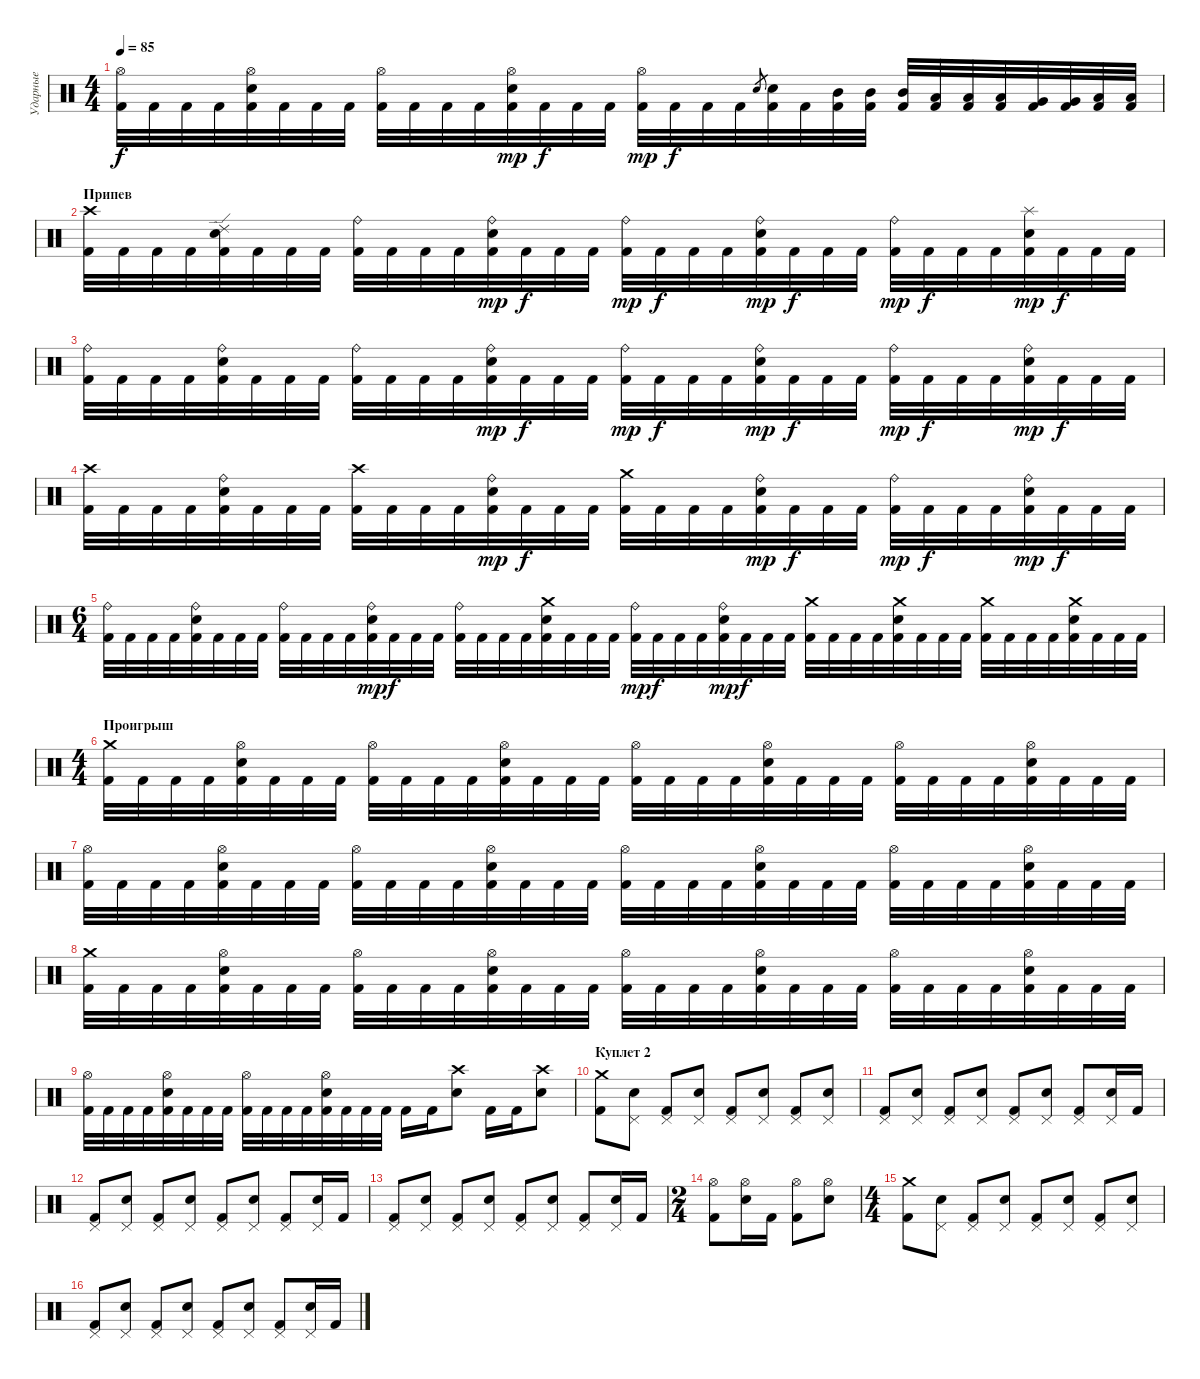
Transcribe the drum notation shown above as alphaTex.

\track ("Ударные" "Ударные") {instrument percussion}
\staff {score}
\articulation defaults
\ts (4 4)
\tempo 85
\clef neutral
\ks c
("Hi-Hat (open)" "Kick (hit) 2").32{dy f} "Kick (hit) 2".32 "Kick (hit) 2".32 "Kick (hit) 2".32 ("Hi-Hat (open)" "Snare (hit) 2" "Kick (hit) 2").32 "Kick (hit) 2".32 "Kick (hit) 2".32 "Kick (hit) 2".32 ("Hi-Hat (open)" "Kick (hit) 2").32 "Kick (hit) 2".32 "Kick (hit) 2".32 "Kick (hit) 2".32 ("Hi-Hat (open)" "Snare (hit) 2" "Kick (hit) 2").32{dy mp} "Kick (hit) 2".32{dy f} "Kick (hit) 2".32 "Kick (hit) 2".32 ("Hi-Hat (open)" "Kick (hit) 2").32{dy mp} "Kick (hit) 2".32{dy f} "Kick (hit) 2".32 "Kick (hit) 2".32 "Snare (hit) 2".8{gr} ("Snare (hit) 2" "Kick (hit) 2").32 "Kick (hit) 2".32 ("Mid Tom (hit)" "Kick (hit) 2").32 ("Mid Tom (hit)" "Kick (hit) 2").32 ("Mid Tom (hit)" "Kick (hit) 2").32 ("Low Tom (hit)" "Kick (hit) 2").32 ("Low Tom (hit)" "Kick (hit) 2").32 ("Low Tom (hit)" "Kick (hit) 2").32 ("Very Low Tom (hit)" "Kick (hit) 2").32 ("Very Low Tom (hit)" "Kick (hit) 2").32 ("Low Floor Tom (hit)" "Kick (hit) 2").32 ("Low Floor Tom (hit)" "Kick (hit) 2").32 |
\section ("" "Припев")
("Crash high (hit)" "Kick (hit) 2").32 "Kick (hit) 2".32 "Kick (hit) 2".32 "Kick (hit) 2".32 ("Ride (edge) 2" "Snare (hit) 2" "Kick (hit) 2").32 "Kick (hit) 2".32 "Kick (hit) 2".32 "Kick (hit) 2".32 ("Ride (bell)" "Kick (hit) 2").32 "Kick (hit) 2".32 "Kick (hit) 2".32 "Kick (hit) 2".32 ("Ride (bell)" "Snare (hit) 2" "Kick (hit) 2").32{dy mp} "Kick (hit) 2".32{dy f} "Kick (hit) 2".32 "Kick (hit) 2".32 ("Ride (bell)" "Kick (hit) 2").32{dy mp} "Kick (hit) 2".32{dy f} "Kick (hit) 2".32 "Kick (hit) 2".32 ("Ride (bell)" "Snare (hit) 2" "Kick (hit) 2").32{dy mp} "Kick (hit) 2".32{dy f} "Kick (hit) 2".32 "Kick (hit) 2".32 ("Ride (bell)" "Kick (hit) 2").32{dy mp} "Kick (hit) 2".32{dy f} "Kick (hit) 2".32 "Kick (hit) 2".32 ("Splash (hit)" "Snare (hit) 2" "Kick (hit) 2").32{dy mp} "Kick (hit) 2".32{dy f} "Kick (hit) 2".32 "Kick (hit) 2".32 |
("Ride (bell)" "Kick (hit) 2").32 "Kick (hit) 2".32 "Kick (hit) 2".32 "Kick (hit) 2".32 ("Ride (bell)" "Snare (hit) 2" "Kick (hit) 2").32 "Kick (hit) 2".32 "Kick (hit) 2".32 "Kick (hit) 2".32 ("Ride (bell)" "Kick (hit) 2").32 "Kick (hit) 2".32 "Kick (hit) 2".32 "Kick (hit) 2".32 ("Ride (bell)" "Snare (hit) 2" "Kick (hit) 2").32{dy mp} "Kick (hit) 2".32{dy f} "Kick (hit) 2".32 "Kick (hit) 2".32 ("Ride (bell)" "Kick (hit) 2").32{dy mp} "Kick (hit) 2".32{dy f} "Kick (hit) 2".32 "Kick (hit) 2".32 ("Ride (bell)" "Snare (hit) 2" "Kick (hit) 2").32{dy mp} "Kick (hit) 2".32{dy f} "Kick (hit) 2".32 "Kick (hit) 2".32 ("Ride (bell)" "Kick (hit) 2").32{dy mp} "Kick (hit) 2".32{dy f} "Kick (hit) 2".32 "Kick (hit) 2".32 ("Ride (bell)" "Snare (hit) 2" "Kick (hit) 2").32{dy mp} "Kick (hit) 2".32{dy f} "Kick (hit) 2".32 "Kick (hit) 2".32 |
("Crash high (hit)" "Kick (hit) 2").32 "Kick (hit) 2".32 "Kick (hit) 2".32 "Kick (hit) 2".32 ("Ride (bell)" "Snare (hit) 2" "Kick (hit) 2").32 "Kick (hit) 2".32 "Kick (hit) 2".32 "Kick (hit) 2".32 ("Crash high (hit)" "Kick (hit) 2").32 "Kick (hit) 2".32 "Kick (hit) 2".32 "Kick (hit) 2".32 ("Ride (bell)" "Snare (hit) 2" "Kick (hit) 2").32{dy mp} "Kick (hit) 2".32{dy f} "Kick (hit) 2".32 "Kick (hit) 2".32 ("Crash medium (hit)" "Kick (hit) 2").32 "Kick (hit) 2".32 "Kick (hit) 2".32 "Kick (hit) 2".32 ("Ride (bell)" "Snare (hit) 2" "Kick (hit) 2").32{dy mp} "Kick (hit) 2".32{dy f} "Kick (hit) 2".32 "Kick (hit) 2".32 ("Ride (bell)" "Kick (hit) 2").32{dy mp} "Kick (hit) 2".32{dy f} "Kick (hit) 2".32 "Kick (hit) 2".32 ("Ride (bell)" "Snare (hit) 2" "Kick (hit) 2").32{dy mp} "Kick (hit) 2".32{dy f} "Kick (hit) 2".32 "Kick (hit) 2".32 |
\ts (6 4)
("Ride (bell)" "Kick (hit) 2").32 "Kick (hit) 2".32 "Kick (hit) 2".32 "Kick (hit) 2".32 ("Ride (bell)" "Snare (hit) 2" "Kick (hit) 2").32 "Kick (hit) 2".32 "Kick (hit) 2".32 "Kick (hit) 2".32 ("Ride (bell)" "Kick (hit) 2").32 "Kick (hit) 2".32 "Kick (hit) 2".32 "Kick (hit) 2".32 ("Ride (bell)" "Snare (hit) 2" "Kick (hit) 2").32{dy mp} "Kick (hit) 2".32{dy f} "Kick (hit) 2".32 "Kick (hit) 2".32 ("Ride (bell)" "Kick (hit) 2").32 "Kick (hit) 2".32 "Kick (hit) 2".32 "Kick (hit) 2".32 ("Crash medium (hit)" "Snare (hit) 2" "Kick (hit) 2").32 "Kick (hit) 2".32 "Kick (hit) 2".32 "Kick (hit) 2".32 ("Ride (bell)" "Kick (hit) 2").32{dy mp} "Kick (hit) 2".32{dy f} "Kick (hit) 2".32 "Kick (hit) 2".32 ("Ride (bell)" "Snare (hit) 2" "Kick (hit) 2").32{dy mp} "Kick (hit) 2".32{dy f} "Kick (hit) 2".32 "Kick (hit) 2".32 ("Crash medium (hit)" "Kick (hit) 2").32 "Kick (hit) 2".32 "Kick (hit) 2".32 "Kick (hit) 2".32 ("Crash medium (hit)" "Snare (hit) 2" "Kick (hit) 2").32 "Kick (hit) 2".32 "Kick (hit) 2".32 "Kick (hit) 2".32 ("Crash medium (hit)" "Kick (hit) 2").32 "Kick (hit) 2".32 "Kick (hit) 2".32 "Kick (hit) 2".32 ("Crash medium (hit)" "Snare (hit) 2" "Kick (hit) 2").32 "Kick (hit) 2".32 "Kick (hit) 2".32 "Kick (hit) 2".32 |
\ts (4 4)
\section ("" "Проигрыш")
("Crash medium (hit)" "Kick (hit) 2").32 "Kick (hit) 2".32 "Kick (hit) 2".32 "Kick (hit) 2".32 ("Hi-Hat (open)" "Snare (hit) 2" "Kick (hit) 2").32 "Kick (hit) 2".32 "Kick (hit) 2".32 "Kick (hit) 2".32 ("Hi-Hat (open)" "Kick (hit) 2").32 "Kick (hit) 2".32 "Kick (hit) 2".32 "Kick (hit) 2".32 ("Hi-Hat (open)" "Snare (hit) 2" "Kick (hit) 2").32 "Kick (hit) 2".32 "Kick (hit) 2".32 "Kick (hit) 2".32 ("Hi-Hat (open)" "Kick (hit) 2").32 "Kick (hit) 2".32 "Kick (hit) 2".32 "Kick (hit) 2".32 ("Hi-Hat (open)" "Snare (hit) 2" "Kick (hit) 2").32 "Kick (hit) 2".32 "Kick (hit) 2".32 "Kick (hit) 2".32 ("Hi-Hat (open)" "Kick (hit) 2").32 "Kick (hit) 2".32 "Kick (hit) 2".32 "Kick (hit) 2".32 ("Hi-Hat (open)" "Snare (hit) 2" "Kick (hit) 2").32 "Kick (hit) 2".32 "Kick (hit) 2".32 "Kick (hit) 2".32 |
("Hi-Hat (open)" "Kick (hit) 2").32 "Kick (hit) 2".32 "Kick (hit) 2".32 "Kick (hit) 2".32 ("Hi-Hat (open)" "Snare (hit) 2" "Kick (hit) 2").32 "Kick (hit) 2".32 "Kick (hit) 2".32 "Kick (hit) 2".32 ("Hi-Hat (open)" "Kick (hit) 2").32 "Kick (hit) 2".32 "Kick (hit) 2".32 "Kick (hit) 2".32 ("Hi-Hat (open)" "Snare (hit) 2" "Kick (hit) 2").32 "Kick (hit) 2".32 "Kick (hit) 2".32 "Kick (hit) 2".32 ("Hi-Hat (open)" "Kick (hit) 2").32 "Kick (hit) 2".32 "Kick (hit) 2".32 "Kick (hit) 2".32 ("Hi-Hat (open)" "Snare (hit) 2" "Kick (hit) 2").32 "Kick (hit) 2".32 "Kick (hit) 2".32 "Kick (hit) 2".32 ("Hi-Hat (open)" "Kick (hit) 2").32 "Kick (hit) 2".32 "Kick (hit) 2".32 "Kick (hit) 2".32 ("Hi-Hat (open)" "Snare (hit) 2" "Kick (hit) 2").32 "Kick (hit) 2".32 "Kick (hit) 2".32 "Kick (hit) 2".32 |
("Crash medium (hit)" "Kick (hit) 2").32 "Kick (hit) 2".32 "Kick (hit) 2".32 "Kick (hit) 2".32 ("Hi-Hat (open)" "Snare (hit) 2" "Kick (hit) 2").32 "Kick (hit) 2".32 "Kick (hit) 2".32 "Kick (hit) 2".32 ("Hi-Hat (open)" "Kick (hit) 2").32 "Kick (hit) 2".32 "Kick (hit) 2".32 "Kick (hit) 2".32 ("Hi-Hat (open)" "Snare (hit) 2" "Kick (hit) 2").32 "Kick (hit) 2".32 "Kick (hit) 2".32 "Kick (hit) 2".32 ("Hi-Hat (open)" "Kick (hit) 2").32 "Kick (hit) 2".32 "Kick (hit) 2".32 "Kick (hit) 2".32 ("Hi-Hat (open)" "Snare (hit) 2" "Kick (hit) 2").32 "Kick (hit) 2".32 "Kick (hit) 2".32 "Kick (hit) 2".32 ("Hi-Hat (open)" "Kick (hit) 2").32 "Kick (hit) 2".32 "Kick (hit) 2".32 "Kick (hit) 2".32 ("Hi-Hat (open)" "Snare (hit) 2" "Kick (hit) 2").32 "Kick (hit) 2".32 "Kick (hit) 2".32 "Kick (hit) 2".32 |
("Hi-Hat (open)" "Kick (hit) 2").32 "Kick (hit) 2".32 "Kick (hit) 2".32 "Kick (hit) 2".32 ("Hi-Hat (open)" "Snare (hit) 2" "Kick (hit) 2").32 "Kick (hit) 2".32 "Kick (hit) 2".32 "Kick (hit) 2".32 ("Hi-Hat (open)" "Kick (hit) 2").32 "Kick (hit) 2".32 "Kick (hit) 2".32 "Kick (hit) 2".32 ("Hi-Hat (open)" "Snare (hit) 2" "Kick (hit) 2").32 "Kick (hit) 2".32 "Kick (hit) 2".32 "Kick (hit) 2".32 "Kick (hit) 2".16 "Kick (hit) 2".16 ("Crash high (hit)" "Snare (hit) 2").8 "Kick (hit) 2".16 "Kick (hit) 2".16 ("Crash high (hit)" "Snare (hit) 2").8 |
\section ("" "Куплет 2")
("Crash medium (hit)" "Kick (hit) 2").8 ("Pedal Hi-Hat (hit)" "Snare (hit) 2").8 ("Pedal Hi-Hat (hit)" "Kick (hit) 2").8 ("Pedal Hi-Hat (hit)" "Snare (hit) 2").8 ("Pedal Hi-Hat (hit)" "Kick (hit) 2").8 ("Pedal Hi-Hat (hit)" "Snare (hit) 2").8 ("Pedal Hi-Hat (hit)" "Kick (hit) 2").8 ("Pedal Hi-Hat (hit)" "Snare (hit) 2").8 |
("Pedal Hi-Hat (hit)" "Kick (hit) 2").8 ("Pedal Hi-Hat (hit)" "Snare (hit) 2").8 ("Pedal Hi-Hat (hit)" "Kick (hit) 2").8 ("Pedal Hi-Hat (hit)" "Snare (hit) 2").8 ("Pedal Hi-Hat (hit)" "Kick (hit) 2").8 ("Pedal Hi-Hat (hit)" "Snare (hit) 2").8 ("Pedal Hi-Hat (hit)" "Kick (hit) 2").8 ("Pedal Hi-Hat (hit)" "Snare (hit) 2").16 "Kick (hit) 2".16 |
("Pedal Hi-Hat (hit)" "Kick (hit) 2").8 ("Pedal Hi-Hat (hit)" "Snare (hit) 2").8 ("Pedal Hi-Hat (hit)" "Kick (hit) 2").8 ("Pedal Hi-Hat (hit)" "Snare (hit) 2").8 ("Pedal Hi-Hat (hit)" "Kick (hit) 2").8 ("Pedal Hi-Hat (hit)" "Snare (hit) 2").8 ("Pedal Hi-Hat (hit)" "Kick (hit) 2").8 ("Pedal Hi-Hat (hit)" "Snare (hit) 2").16 "Kick (hit) 2".16 |
("Pedal Hi-Hat (hit)" "Kick (hit) 2").8 ("Pedal Hi-Hat (hit)" "Snare (hit) 2").8 ("Pedal Hi-Hat (hit)" "Kick (hit) 2").8 ("Pedal Hi-Hat (hit)" "Snare (hit) 2").8 ("Pedal Hi-Hat (hit)" "Kick (hit) 2").8 ("Pedal Hi-Hat (hit)" "Snare (hit) 2").8 ("Pedal Hi-Hat (hit)" "Kick (hit) 2").8 ("Pedal Hi-Hat (hit)" "Snare (hit) 2").16 "Kick (hit) 2".16 |
\ts (2 4)
("Hi-Hat (open)" "Kick (hit) 2").8 ("Hi-Hat (open)" "Snare (hit) 2").16 "Kick (hit) 2".16 ("Hi-Hat (open)" "Kick (hit) 2").8 ("Hi-Hat (open)" "Snare (hit) 2").8 |
\ts (4 4)
("Crash medium (hit)" "Kick (hit) 2").8 ("Pedal Hi-Hat (hit)" "Snare (hit) 2").8 ("Pedal Hi-Hat (hit)" "Kick (hit) 2").8 ("Pedal Hi-Hat (hit)" "Snare (hit) 2").8 ("Pedal Hi-Hat (hit)" "Kick (hit) 2").8 ("Pedal Hi-Hat (hit)" "Snare (hit) 2").8 ("Pedal Hi-Hat (hit)" "Kick (hit) 2").8 ("Pedal Hi-Hat (hit)" "Snare (hit) 2").8 |
("Pedal Hi-Hat (hit)" "Kick (hit) 2").8 ("Pedal Hi-Hat (hit)" "Snare (hit) 2").8 ("Pedal Hi-Hat (hit)" "Kick (hit) 2").8 ("Pedal Hi-Hat (hit)" "Snare (hit) 2").8 ("Pedal Hi-Hat (hit)" "Kick (hit) 2").8 ("Pedal Hi-Hat (hit)" "Snare (hit) 2").8 ("Pedal Hi-Hat (hit)" "Kick (hit) 2").8 ("Pedal Hi-Hat (hit)" "Snare (hit) 2").16 "Kick (hit) 2".16
